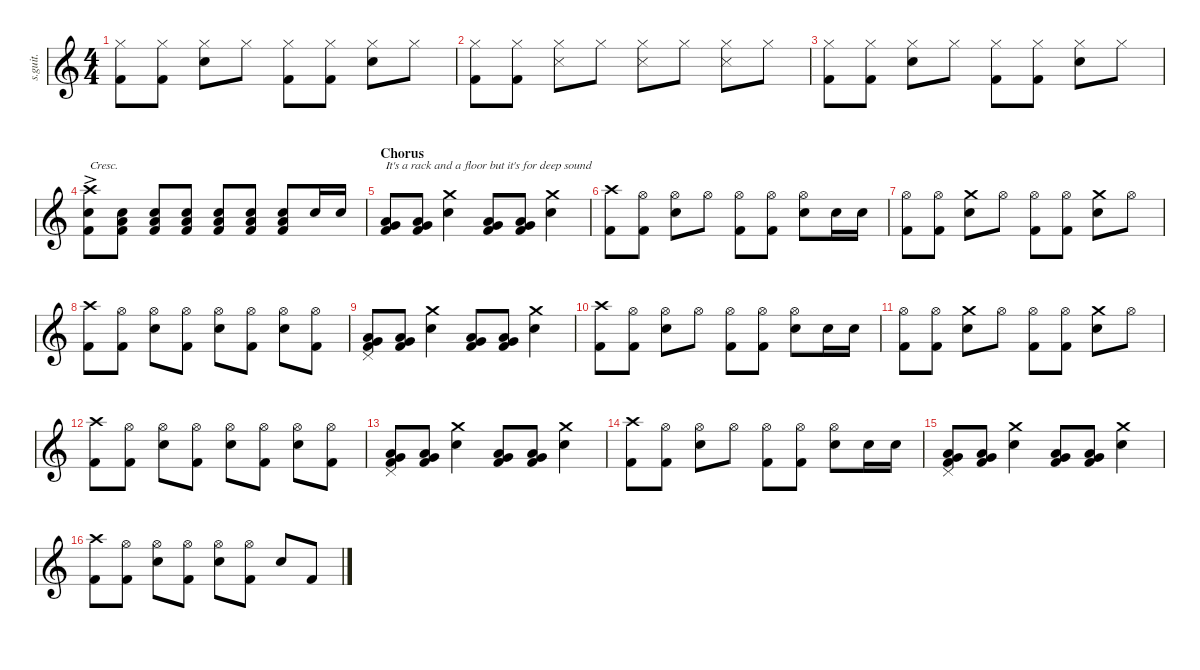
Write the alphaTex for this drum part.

\defaultSystemsLayout 4
\hideDynamics
\bracketExtendMode nobrackets
\track ("Dave Grohl - Drums" "s.guit.") {instrument percussion}
\staff {score}
\articulation defaults
\ts (4 4)
\tempo (100 hide)
\clef g2
\ks c
("Hi-Hat (closed)" "Kick (hit) 2").8{lyrics (0 "") lyrics (1 "") lyrics (2 "") lyrics (3 "") lyrics (4 "") dy mf} ("Hi-Hat (closed)" "Kick (hit) 2").8{lyrics (0 "") lyrics (1 "") lyrics (2 "") lyrics (3 "") lyrics (4 "")} ("Hi-Hat (closed)" "Snare (hit) 2").8{lyrics (0 "") lyrics (1 "") lyrics (2 "") lyrics (3 "") lyrics (4 "")} "Hi-Hat (closed)".8{lyrics (0 "") lyrics (1 "") lyrics (2 "") lyrics (3 "") lyrics (4 "")} ("Hi-Hat (closed)" "Kick (hit) 2").8{lyrics (0 "") lyrics (1 "") lyrics (2 "") lyrics (3 "") lyrics (4 "")} ("Hi-Hat (closed)" "Kick (hit) 2").8{lyrics (0 "") lyrics (1 "") lyrics (2 "") lyrics (3 "") lyrics (4 "")} ("Snare (hit) 2" "Hi-Hat (closed)").8{lyrics (0 "") lyrics (1 "") lyrics (2 "") lyrics (3 "") lyrics (4 "")} "Hi-Hat (closed)".8{lyrics (0 "") lyrics (1 "") lyrics (2 "") lyrics (3 "") lyrics (4 "")} |
("Hi-Hat (closed)" "Kick (hit) 2").8{lyrics (0 "") lyrics (1 "") lyrics (2 "") lyrics (3 "") lyrics (4 "")} ("Hi-Hat (closed)" "Kick (hit) 2").8{lyrics (0 "") lyrics (1 "") lyrics (2 "") lyrics (3 "") lyrics (4 "")} ("Hi-Hat (closed)" "Snare (side stick) 3").8{lyrics (0 "") lyrics (1 "") lyrics (2 "") lyrics (3 "") lyrics (4 "")} "Hi-Hat (closed)".8{lyrics (0 "") lyrics (1 "") lyrics (2 "") lyrics (3 "") lyrics (4 "")} ("Hi-Hat (closed)" "Snare (side stick) 3").8{lyrics (0 "") lyrics (1 "") lyrics (2 "") lyrics (3 "") lyrics (4 "")} "Hi-Hat (closed)".8{lyrics (0 "") lyrics (1 "") lyrics (2 "") lyrics (3 "") lyrics (4 "")} ("Hi-Hat (closed)" "Snare (side stick) 3").8{lyrics (0 "") lyrics (1 "") lyrics (2 "") lyrics (3 "") lyrics (4 "")} "Hi-Hat (closed)".8{lyrics (0 "") lyrics (1 "") lyrics (2 "") lyrics (3 "") lyrics (4 "")} |
("Hi-Hat (closed)" "Kick (hit) 2").8{lyrics (0 "") lyrics (1 "") lyrics (2 "") lyrics (3 "") lyrics (4 "")} ("Hi-Hat (closed)" "Kick (hit) 2").8{lyrics (0 "") lyrics (1 "") lyrics (2 "") lyrics (3 "") lyrics (4 "")} ("Hi-Hat (closed)" "Snare (hit) 2").8{lyrics (0 "") lyrics (1 "") lyrics (2 "") lyrics (3 "") lyrics (4 "")} "Hi-Hat (closed)".8{lyrics (0 "") lyrics (1 "") lyrics (2 "") lyrics (3 "") lyrics (4 "")} ("Hi-Hat (closed)" "Kick (hit) 2").8{lyrics (0 "") lyrics (1 "") lyrics (2 "") lyrics (3 "") lyrics (4 "")} ("Hi-Hat (closed)" "Kick (hit) 2").8{lyrics (0 "") lyrics (1 "") lyrics (2 "") lyrics (3 "") lyrics (4 "")} ("Snare (hit) 2" "Hi-Hat (closed)").8{lyrics (0 "") lyrics (1 "") lyrics (2 "") lyrics (3 "") lyrics (4 "")} "Hi-Hat (closed)".8{lyrics (0 "") lyrics (1 "") lyrics (2 "") lyrics (3 "") lyrics (4 "")} |
("Crash high (hit)"{ac} "Snare (hit) 2" "Kick (hit) 2").8{txt "Cresc." lyrics (0 "") lyrics (1 "") lyrics (2 "") lyrics (3 "") lyrics (4 "")} ("Snare (hit) 2" "Low Tom (hit)" "Kick (hit) 2").8{lyrics (0 "") lyrics (1 "") lyrics (2 "") lyrics (3 "") lyrics (4 "") dy pp} ("Snare (hit) 2" "Low Tom (hit)" "Kick (hit) 2").8{lyrics (0 "") lyrics (1 "") lyrics (2 "") lyrics (3 "") lyrics (4 "") dy p} ("Snare (hit) 2" "Low Tom (hit)" "Kick (hit) 2").8{lyrics (0 "") lyrics (1 "") lyrics (2 "") lyrics (3 "") lyrics (4 "")} ("Snare (hit) 2" "Low Tom (hit)" "Kick (hit) 2").8{lyrics (0 "") lyrics (1 "") lyrics (2 "") lyrics (3 "") lyrics (4 "") dy mp} ("Snare (hit) 2" "Low Tom (hit)" "Kick (hit) 2").8{lyrics (0 "") lyrics (1 "") lyrics (2 "") lyrics (3 "") lyrics (4 "") dy mf} ("Snare (hit) 2" "Low Tom (hit)" "Kick (hit) 2").8{lyrics (0 "") lyrics (1 "") lyrics (2 "") lyrics (3 "") lyrics (4 "") dy f} "Snare (hit) 2".16{lyrics (0 "") lyrics (1 "") lyrics (2 "") lyrics (3 "") lyrics (4 "") dy ff} "Snare (hit) 2".16{lyrics (0 "") lyrics (1 "") lyrics (2 "") lyrics (3 "") lyrics (4 "")} |
\section ("" "Chorus")
("Low Tom (hit)" "Kick (hit) 2" "Very Low Tom (hit)").8{txt "It's a rack and a floor but it's for deep sound" lyrics (0 "") lyrics (1 "") lyrics (2 "") lyrics (3 "") lyrics (4 "")} ("Low Tom (hit)" "Kick (hit) 2" "Very Low Tom (hit)").8{lyrics (0 "") lyrics (1 "") lyrics (2 "") lyrics (3 "") lyrics (4 "")} ("Snare (hit) 2" "Crash medium (hit)").4{lyrics (0 "") lyrics (1 "") lyrics (2 "") lyrics (3 "") lyrics (4 "")} ("Low Tom (hit)" "Kick (hit) 2" "Very Low Tom (hit)").8{lyrics (0 "") lyrics (1 "") lyrics (2 "") lyrics (3 "") lyrics (4 "")} ("Low Tom (hit)" "Kick (hit) 2" "Very Low Tom (hit)").8{lyrics (0 "") lyrics (1 "") lyrics (2 "") lyrics (3 "") lyrics (4 "")} ("Snare (hit) 2" "Crash medium (hit)").4{lyrics (0 "") lyrics (1 "") lyrics (2 "") lyrics (3 "") lyrics (4 "")} |
("Kick (hit) 2" "Crash high (hit)").8{lyrics (0 "") lyrics (1 "") lyrics (2 "") lyrics (3 "") lyrics (4 "")} ("Hi-Hat (open)" "Kick (hit) 2").8{lyrics (0 "") lyrics (1 "") lyrics (2 "") lyrics (3 "") lyrics (4 "")} ("Snare (hit) 2" "Hi-Hat (open)").8{lyrics (0 "") lyrics (1 "") lyrics (2 "") lyrics (3 "") lyrics (4 "")} "Hi-Hat (open)".8{lyrics (0 "") lyrics (1 "") lyrics (2 "") lyrics (3 "") lyrics (4 "")} ("Hi-Hat (open)" "Kick (hit) 2").8{lyrics (0 "") lyrics (1 "") lyrics (2 "") lyrics (3 "") lyrics (4 "")} ("Hi-Hat (open)" "Kick (hit) 2").8{lyrics (0 "") lyrics (1 "") lyrics (2 "") lyrics (3 "") lyrics (4 "") dy f} ("Snare (hit) 2" "Hi-Hat (open)").8{lyrics (0 "") lyrics (1 "") lyrics (2 "") lyrics (3 "") lyrics (4 "") dy ff} "Snare (hit) 2".16{lyrics (0 "") lyrics (1 "") lyrics (2 "") lyrics (3 "") lyrics (4 "")} "Snare (hit) 2".16{lyrics (0 "") lyrics (1 "") lyrics (2 "") lyrics (3 "") lyrics (4 "")} |
("Kick (hit) 2" "Hi-Hat (open)").8{lyrics (0 "") lyrics (1 "") lyrics (2 "") lyrics (3 "") lyrics (4 "")} ("Kick (hit) 2" "Hi-Hat (open)").8{lyrics (0 "") lyrics (1 "") lyrics (2 "") lyrics (3 "") lyrics (4 "")} ("Snare (hit) 2" "Crash medium (hit)").8{lyrics (0 "") lyrics (1 "") lyrics (2 "") lyrics (3 "") lyrics (4 "")} "Hi-Hat (open)".8{lyrics (0 "") lyrics (1 "") lyrics (2 "") lyrics (3 "") lyrics (4 "")} ("Kick (hit) 2" "Hi-Hat (open)").8{lyrics (0 "") lyrics (1 "") lyrics (2 "") lyrics (3 "") lyrics (4 "")} ("Kick (hit) 2" "Hi-Hat (open)").8{lyrics (0 "") lyrics (1 "") lyrics (2 "") lyrics (3 "") lyrics (4 "")} ("Snare (hit) 2" "Crash medium (hit)").8{lyrics (0 "") lyrics (1 "") lyrics (2 "") lyrics (3 "") lyrics (4 "")} "Hi-Hat (open)".8{lyrics (0 "") lyrics (1 "") lyrics (2 "") lyrics (3 "") lyrics (4 "")} |
("Kick (hit) 2" "Crash high (hit)").8{lyrics (0 "") lyrics (1 "") lyrics (2 "") lyrics (3 "") lyrics (4 "")} ("Hi-Hat (open)" "Kick (hit) 2").8{lyrics (0 "") lyrics (1 "") lyrics (2 "") lyrics (3 "") lyrics (4 "")} ("Snare (hit) 2" "Hi-Hat (open)").8{lyrics (0 "") lyrics (1 "") lyrics (2 "") lyrics (3 "") lyrics (4 "")} ("Hi-Hat (open)" "Kick (hit) 2").8{lyrics (0 "") lyrics (1 "") lyrics (2 "") lyrics (3 "") lyrics (4 "")} ("Snare (hit) 2" "Hi-Hat (open)").8{lyrics (0 "") lyrics (1 "") lyrics (2 "") lyrics (3 "") lyrics (4 "")} ("Hi-Hat (open)" "Kick (hit) 2").8{lyrics (0 "") lyrics (1 "") lyrics (2 "") lyrics (3 "") lyrics (4 "")} ("Snare (hit) 2" "Hi-Hat (open)").8{lyrics (0 "") lyrics (1 "") lyrics (2 "") lyrics (3 "") lyrics (4 "")} ("Hi-Hat (open)" "Kick (hit) 2").8{lyrics (0 "") lyrics (1 "") lyrics (2 "") lyrics (3 "") lyrics (4 "")} |
("Low Tom (hit)" "Kick (hit) 2" "Pedal Hi-Hat (hit)" "Very Low Tom (hit)").8{lyrics (0 "") lyrics (1 "") lyrics (2 "") lyrics (3 "") lyrics (4 "")} ("Low Tom (hit)" "Kick (hit) 2" "Very Low Tom (hit)").8{lyrics (0 "") lyrics (1 "") lyrics (2 "") lyrics (3 "") lyrics (4 "")} ("Snare (hit) 2" "Crash medium (hit)").4{lyrics (0 "") lyrics (1 "") lyrics (2 "") lyrics (3 "") lyrics (4 "")} ("Low Tom (hit)" "Kick (hit) 2" "Very Low Tom (hit)").8{lyrics (0 "") lyrics (1 "") lyrics (2 "") lyrics (3 "") lyrics (4 "")} ("Low Tom (hit)" "Kick (hit) 2" "Very Low Tom (hit)").8{lyrics (0 "") lyrics (1 "") lyrics (2 "") lyrics (3 "") lyrics (4 "")} ("Snare (hit) 2" "Crash medium (hit)").4{lyrics (0 "") lyrics (1 "") lyrics (2 "") lyrics (3 "") lyrics (4 "")} |
("Kick (hit) 2" "Crash high (hit)").8{lyrics (0 "") lyrics (1 "") lyrics (2 "") lyrics (3 "") lyrics (4 "")} ("Hi-Hat (open)" "Kick (hit) 2").8{lyrics (0 "") lyrics (1 "") lyrics (2 "") lyrics (3 "") lyrics (4 "")} ("Snare (hit) 2" "Hi-Hat (open)").8{lyrics (0 "") lyrics (1 "") lyrics (2 "") lyrics (3 "") lyrics (4 "")} "Hi-Hat (open)".8{lyrics (0 "") lyrics (1 "") lyrics (2 "") lyrics (3 "") lyrics (4 "")} ("Hi-Hat (open)" "Kick (hit) 2").8{lyrics (0 "") lyrics (1 "") lyrics (2 "") lyrics (3 "") lyrics (4 "")} ("Hi-Hat (open)" "Kick (hit) 2").8{lyrics (0 "") lyrics (1 "") lyrics (2 "") lyrics (3 "") lyrics (4 "") dy f} ("Snare (hit) 2" "Hi-Hat (open)").8{lyrics (0 "") lyrics (1 "") lyrics (2 "") lyrics (3 "") lyrics (4 "") dy ff} "Snare (hit) 2".16{lyrics (0 "") lyrics (1 "") lyrics (2 "") lyrics (3 "") lyrics (4 "")} "Snare (hit) 2".16{lyrics (0 "") lyrics (1 "") lyrics (2 "") lyrics (3 "") lyrics (4 "")} |
("Kick (hit) 2" "Hi-Hat (open)").8{lyrics (0 "") lyrics (1 "") lyrics (2 "") lyrics (3 "") lyrics (4 "")} ("Kick (hit) 2" "Hi-Hat (open)").8{lyrics (0 "") lyrics (1 "") lyrics (2 "") lyrics (3 "") lyrics (4 "")} ("Snare (hit) 2" "Crash medium (hit)").8{lyrics (0 "") lyrics (1 "") lyrics (2 "") lyrics (3 "") lyrics (4 "")} "Hi-Hat (open)".8{lyrics (0 "") lyrics (1 "") lyrics (2 "") lyrics (3 "") lyrics (4 "")} ("Kick (hit) 2" "Hi-Hat (open)").8{lyrics (0 "") lyrics (1 "") lyrics (2 "") lyrics (3 "") lyrics (4 "")} ("Kick (hit) 2" "Hi-Hat (open)").8{lyrics (0 "") lyrics (1 "") lyrics (2 "") lyrics (3 "") lyrics (4 "")} ("Snare (hit) 2" "Crash medium (hit)").8{lyrics (0 "") lyrics (1 "") lyrics (2 "") lyrics (3 "") lyrics (4 "")} "Hi-Hat (open)".8{lyrics (0 "") lyrics (1 "") lyrics (2 "") lyrics (3 "") lyrics (4 "")} |
("Kick (hit) 2" "Crash high (hit)").8{lyrics (0 "") lyrics (1 "") lyrics (2 "") lyrics (3 "") lyrics (4 "")} ("Hi-Hat (open)" "Kick (hit) 2").8{lyrics (0 "") lyrics (1 "") lyrics (2 "") lyrics (3 "") lyrics (4 "")} ("Snare (hit) 2" "Hi-Hat (open)").8{lyrics (0 "") lyrics (1 "") lyrics (2 "") lyrics (3 "") lyrics (4 "")} ("Hi-Hat (open)" "Kick (hit) 2").8{lyrics (0 "") lyrics (1 "") lyrics (2 "") lyrics (3 "") lyrics (4 "")} ("Snare (hit) 2" "Hi-Hat (open)").8{lyrics (0 "") lyrics (1 "") lyrics (2 "") lyrics (3 "") lyrics (4 "")} ("Hi-Hat (open)" "Kick (hit) 2").8{lyrics (0 "") lyrics (1 "") lyrics (2 "") lyrics (3 "") lyrics (4 "")} ("Snare (hit) 2" "Hi-Hat (open)").8{lyrics (0 "") lyrics (1 "") lyrics (2 "") lyrics (3 "") lyrics (4 "")} ("Hi-Hat (open)" "Kick (hit) 2").8{lyrics (0 "") lyrics (1 "") lyrics (2 "") lyrics (3 "") lyrics (4 "")} |
("Low Tom (hit)" "Kick (hit) 2" "Very Low Tom (hit)" "Pedal Hi-Hat (hit)").8{lyrics (0 "") lyrics (1 "") lyrics (2 "") lyrics (3 "") lyrics (4 "")} ("Low Tom (hit)" "Kick (hit) 2" "Very Low Tom (hit)").8{lyrics (0 "") lyrics (1 "") lyrics (2 "") lyrics (3 "") lyrics (4 "")} ("Snare (hit) 2" "Crash medium (hit)").4{lyrics (0 "") lyrics (1 "") lyrics (2 "") lyrics (3 "") lyrics (4 "")} ("Low Tom (hit)" "Kick (hit) 2" "Very Low Tom (hit)").8{lyrics (0 "") lyrics (1 "") lyrics (2 "") lyrics (3 "") lyrics (4 "")} ("Low Tom (hit)" "Kick (hit) 2" "Very Low Tom (hit)").8{lyrics (0 "") lyrics (1 "") lyrics (2 "") lyrics (3 "") lyrics (4 "")} ("Snare (hit) 2" "Crash medium (hit)").4{lyrics (0 "") lyrics (1 "") lyrics (2 "") lyrics (3 "") lyrics (4 "")} |
("Kick (hit) 2" "Crash high (hit)").8{lyrics (0 "") lyrics (1 "") lyrics (2 "") lyrics (3 "") lyrics (4 "")} ("Hi-Hat (open)" "Kick (hit) 2").8{lyrics (0 "") lyrics (1 "") lyrics (2 "") lyrics (3 "") lyrics (4 "")} ("Snare (hit) 2" "Hi-Hat (open)").8{lyrics (0 "") lyrics (1 "") lyrics (2 "") lyrics (3 "") lyrics (4 "")} "Hi-Hat (open)".8{lyrics (0 "") lyrics (1 "") lyrics (2 "") lyrics (3 "") lyrics (4 "")} ("Hi-Hat (open)" "Kick (hit) 2").8{lyrics (0 "") lyrics (1 "") lyrics (2 "") lyrics (3 "") lyrics (4 "")} ("Hi-Hat (open)" "Kick (hit) 2").8{lyrics (0 "") lyrics (1 "") lyrics (2 "") lyrics (3 "") lyrics (4 "") dy f} ("Snare (hit) 2" "Hi-Hat (open)").8{lyrics (0 "") lyrics (1 "") lyrics (2 "") lyrics (3 "") lyrics (4 "") dy ff} "Snare (hit) 2".16{lyrics (0 "") lyrics (1 "") lyrics (2 "") lyrics (3 "") lyrics (4 "")} "Snare (hit) 2".16{lyrics (0 "") lyrics (1 "") lyrics (2 "") lyrics (3 "") lyrics (4 "")} |
("Low Tom (hit)" "Kick (hit) 2" "Very Low Tom (hit)" "Pedal Hi-Hat (hit)").8{lyrics (0 "") lyrics (1 "") lyrics (2 "") lyrics (3 "") lyrics (4 "")} ("Low Tom (hit)" "Kick (hit) 2" "Very Low Tom (hit)").8{lyrics (0 "") lyrics (1 "") lyrics (2 "") lyrics (3 "") lyrics (4 "")} ("Snare (hit) 2" "Crash medium (hit)").4{lyrics (0 "") lyrics (1 "") lyrics (2 "") lyrics (3 "") lyrics (4 "")} ("Low Tom (hit)" "Kick (hit) 2" "Very Low Tom (hit)").8{lyrics (0 "") lyrics (1 "") lyrics (2 "") lyrics (3 "") lyrics (4 "")} ("Low Tom (hit)" "Kick (hit) 2" "Very Low Tom (hit)").8{lyrics (0 "") lyrics (1 "") lyrics (2 "") lyrics (3 "") lyrics (4 "")} ("Snare (hit) 2" "Crash medium (hit)").4{lyrics (0 "") lyrics (1 "") lyrics (2 "") lyrics (3 "") lyrics (4 "")} |
("Kick (hit) 2" "Crash high (hit)").8{lyrics (0 "") lyrics (1 "") lyrics (2 "") lyrics (3 "") lyrics (4 "")} ("Hi-Hat (open)" "Kick (hit) 2").8{lyrics (0 "") lyrics (1 "") lyrics (2 "") lyrics (3 "") lyrics (4 "")} ("Snare (hit) 2" "Hi-Hat (open)").8{lyrics (0 "") lyrics (1 "") lyrics (2 "") lyrics (3 "") lyrics (4 "")} ("Hi-Hat (open)" "Kick (hit) 2").8{lyrics (0 "") lyrics (1 "") lyrics (2 "") lyrics (3 "") lyrics (4 "")} ("Snare (hit) 2" "Hi-Hat (open)").8{lyrics (0 "") lyrics (1 "") lyrics (2 "") lyrics (3 "") lyrics (4 "")} ("Hi-Hat (open)" "Kick (hit) 2").8{lyrics (0 "") lyrics (1 "") lyrics (2 "") lyrics (3 "") lyrics (4 "")} "Snare (hit) 2".8{lyrics (0 "") lyrics (1 "") lyrics (2 "") lyrics (3 "") lyrics (4 "") dy fff} "Kick (hit) 2".8{lyrics (0 "") lyrics (1 "") lyrics (2 "") lyrics (3 "") lyrics (4 "") dy ff}
